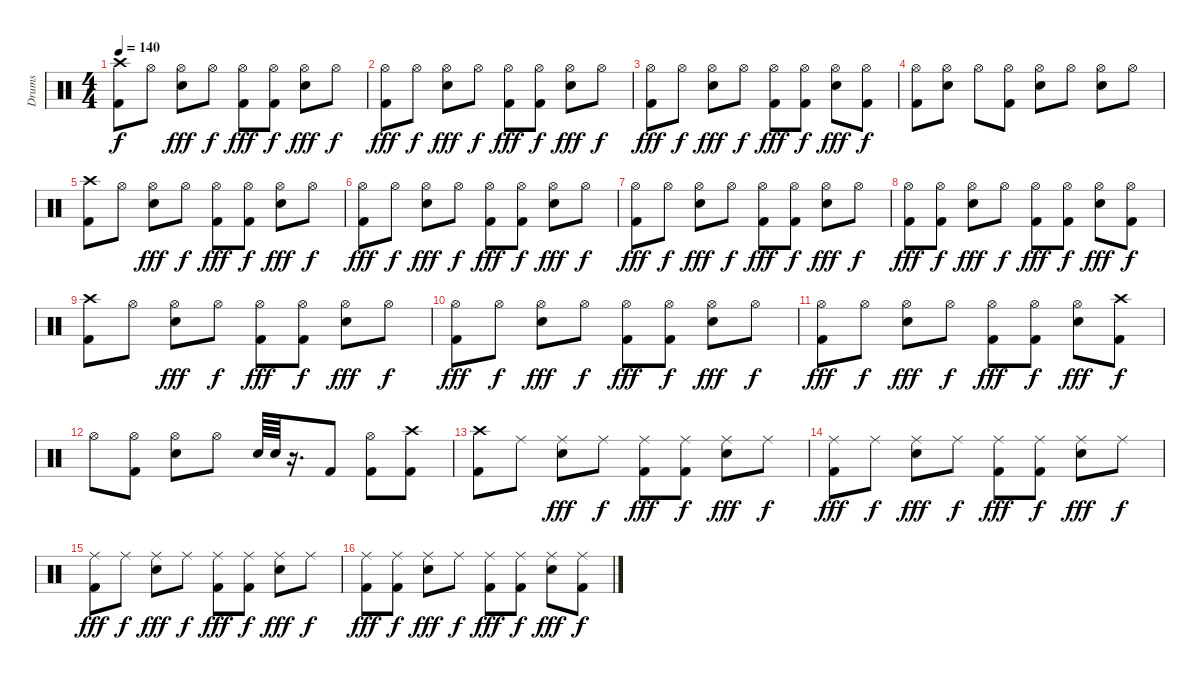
\track ("Drums" "Drums") {instrument percussion}
\staff {score}
\articulation defaults
\ts (4 4)
\tempo 140
\clef neutral
\ks c
("Crash high (hit)" "Kick (hit) 2").8{dy f} "Hi-Hat (open)".8 ("Hi-Hat (open)" "Snare (hit) 2").8{dy fff} "Hi-Hat (open)".8{dy f} ("Hi-Hat (open)" "Kick (hit) 2").8{dy fff} ("Hi-Hat (open)" "Kick (hit) 2").8{dy f} ("Hi-Hat (open)" "Snare (hit) 2").8{dy fff} "Hi-Hat (open)".8{dy f} |
("Hi-Hat (open)" "Kick (hit) 2").8{dy fff} "Hi-Hat (open)".8{dy f} ("Hi-Hat (open)" "Snare (hit) 2").8{dy fff} "Hi-Hat (open)".8{dy f} ("Hi-Hat (open)" "Kick (hit) 2").8{dy fff} ("Hi-Hat (open)" "Kick (hit) 2").8{dy f} ("Hi-Hat (open)" "Snare (hit) 2").8{dy fff} "Hi-Hat (open)".8{dy f} |
("Hi-Hat (open)" "Kick (hit) 2").8{dy fff} "Hi-Hat (open)".8{dy f} ("Hi-Hat (open)" "Snare (hit) 2").8{dy fff} "Hi-Hat (open)".8{dy f} ("Hi-Hat (open)" "Kick (hit) 2").8{dy fff} ("Hi-Hat (open)" "Kick (hit) 2").8{dy f} ("Hi-Hat (open)" "Snare (hit) 2").8{dy fff} ("Hi-Hat (open)" "Kick (hit) 2").8{dy f} |
("Hi-Hat (open)" "Kick (hit) 2").8 ("Hi-Hat (open)" "Snare (hit) 2").8 "Hi-Hat (open)".8 ("Hi-Hat (open)" "Kick (hit) 2").8 ("Hi-Hat (open)" "Snare (hit) 2").8 "Hi-Hat (open)".8 ("Hi-Hat (open)" "Snare (hit) 2").8 "Hi-Hat (open)".8 |
("Crash high (hit)" "Kick (hit) 2").8 "Hi-Hat (open)".8 ("Hi-Hat (open)" "Snare (hit) 2").8{dy fff} "Hi-Hat (open)".8{dy f} ("Hi-Hat (open)" "Kick (hit) 2").8{dy fff} ("Hi-Hat (open)" "Kick (hit) 2").8{dy f} ("Hi-Hat (open)" "Snare (hit) 2").8{dy fff} "Hi-Hat (open)".8{dy f} |
("Hi-Hat (open)" "Kick (hit) 2").8{dy fff} "Hi-Hat (open)".8{dy f} ("Hi-Hat (open)" "Snare (hit) 2").8{dy fff} "Hi-Hat (open)".8{dy f} ("Hi-Hat (open)" "Kick (hit) 2").8{dy fff} ("Hi-Hat (open)" "Kick (hit) 2").8{dy f} ("Hi-Hat (open)" "Snare (hit) 2").8{dy fff} "Hi-Hat (open)".8{dy f} |
("Hi-Hat (open)" "Kick (hit) 2").8{dy fff} "Hi-Hat (open)".8{dy f} ("Hi-Hat (open)" "Snare (hit) 2").8{dy fff} "Hi-Hat (open)".8{dy f} ("Hi-Hat (open)" "Kick (hit) 2").8{dy fff} ("Hi-Hat (open)" "Kick (hit) 2").8{dy f} ("Hi-Hat (open)" "Snare (hit) 2").8{dy fff} "Hi-Hat (open)".8{dy f} |
("Hi-Hat (open)" "Kick (hit) 2").8{dy fff} ("Hi-Hat (open)" "Kick (hit) 2").8{dy f} ("Hi-Hat (open)" "Snare (hit) 2").8{dy fff} "Hi-Hat (open)".8{dy f} ("Hi-Hat (open)" "Kick (hit) 2").8{dy fff} ("Hi-Hat (open)" "Kick (hit) 2").8{dy f} ("Hi-Hat (open)" "Snare (hit) 2").8{dy fff} ("Hi-Hat (open)" "Kick (hit) 2").8{dy f} |
("Crash high (hit)" "Kick (hit) 2").8 "Hi-Hat (open)".8 ("Hi-Hat (open)" "Snare (hit) 2").8{dy fff} "Hi-Hat (open)".8{dy f} ("Hi-Hat (open)" "Kick (hit) 2").8{dy fff} ("Hi-Hat (open)" "Kick (hit) 2").8{dy f} ("Hi-Hat (open)" "Snare (hit) 2").8{dy fff} "Hi-Hat (open)".8{dy f} |
("Hi-Hat (open)" "Kick (hit) 2").8{dy fff} "Hi-Hat (open)".8{dy f} ("Hi-Hat (open)" "Snare (hit) 2").8{dy fff} "Hi-Hat (open)".8{dy f} ("Hi-Hat (open)" "Kick (hit) 2").8{dy fff} ("Hi-Hat (open)" "Kick (hit) 2").8{dy f} ("Hi-Hat (open)" "Snare (hit) 2").8{dy fff} "Hi-Hat (open)".8{dy f} |
("Hi-Hat (open)" "Kick (hit) 2").8{dy fff} "Hi-Hat (open)".8{dy f} ("Hi-Hat (open)" "Snare (hit) 2").8{dy fff} "Hi-Hat (open)".8{dy f} ("Hi-Hat (open)" "Kick (hit) 2").8{dy fff} ("Hi-Hat (open)" "Kick (hit) 2").8{dy f} ("Hi-Hat (open)" "Snare (hit) 2").8{dy fff} ("Crash high (hit)" "Kick (hit) 2").8{dy f} |
"Hi-Hat (open)".8 ("Hi-Hat (open)" "Kick (hit) 2").8 ("Hi-Hat (open)" "Snare (hit) 2").8 "Hi-Hat (open)".8 "Snare (hit) 2".64 "Snare (hit) 2".64 r.16{d} "Kick (hit) 2".8 ("Hi-Hat (open)" "Kick (hit) 2").8 ("Crash high (hit)" "Kick (hit) 2").8 |
("Crash high (hit)" "Kick (hit) 2").8 "Ride (middle)".8 ("Ride (middle)" "Snare (hit) 2").8{dy fff} "Ride (middle)".8{dy f} ("Ride (middle)" "Kick (hit) 2").8{dy fff} ("Ride (middle)" "Kick (hit) 2").8{dy f} ("Ride (middle)" "Snare (hit) 2").8{dy fff} "Ride (middle)".8{dy f} |
("Ride (middle)" "Kick (hit) 2").8{dy fff} "Ride (middle)".8{dy f} ("Ride (middle)" "Snare (hit) 2").8{dy fff} "Ride (middle)".8{dy f} ("Ride (middle)" "Kick (hit) 2").8{dy fff} ("Ride (middle)" "Kick (hit) 2").8{dy f} ("Ride (middle)" "Snare (hit) 2").8{dy fff} "Ride (middle)".8{dy f} |
("Ride (middle)" "Kick (hit) 2").8{dy fff} "Ride (middle)".8{dy f} ("Ride (middle)" "Snare (hit) 2").8{dy fff} "Ride (middle)".8{dy f} ("Ride (middle)" "Kick (hit) 2").8{dy fff} ("Ride (middle)" "Kick (hit) 2").8{dy f} ("Ride (middle)" "Snare (hit) 2").8{dy fff} "Ride (middle)".8{dy f} |
("Ride (middle)" "Kick (hit) 2").8{dy fff} ("Ride (middle)" "Kick (hit) 2").8{dy f} ("Ride (middle)" "Snare (hit) 2").8{dy fff} "Ride (middle)".8{dy f} ("Ride (middle)" "Kick (hit) 2").8{dy fff} ("Ride (middle)" "Kick (hit) 2").8{dy f} ("Ride (middle)" "Snare (hit) 2").8{dy fff} ("Ride (middle)" "Kick (hit) 2").8{dy f}
